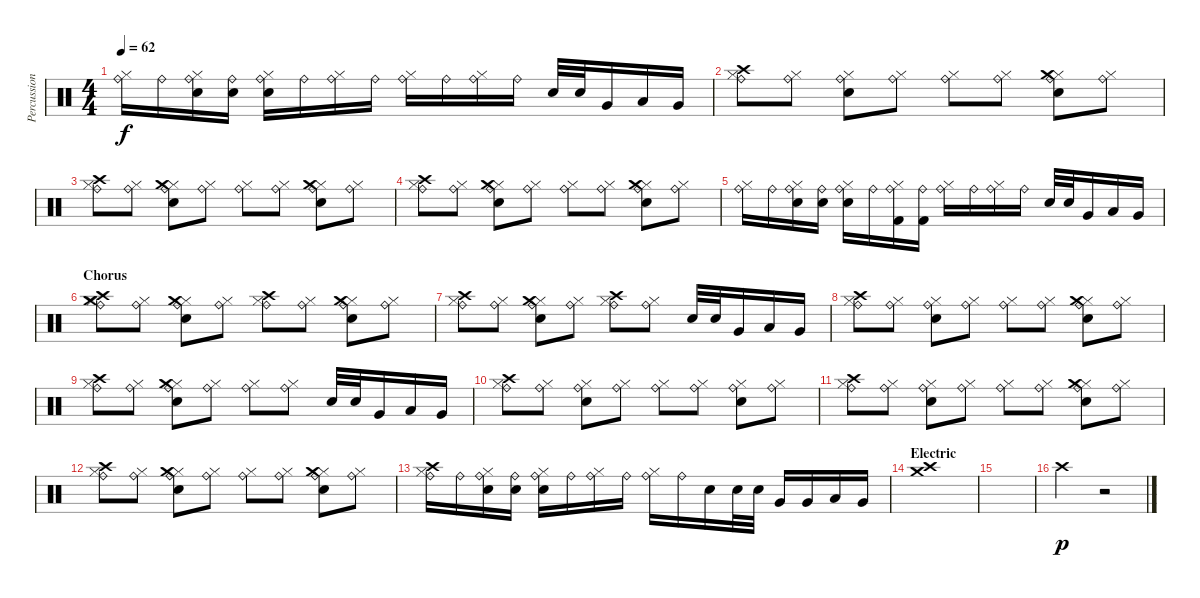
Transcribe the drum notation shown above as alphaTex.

\track ("Percussion" "Percussion") {instrument percussion}
\staff {score}
\articulation defaults
\ts (4 4)
\tempo 62
\clef neutral
\ks c
("Hi-Hat (closed)" "Ride (bell)").16{dy f} "Ride (bell)".16 ("Hi-Hat (closed)" "Electric Snare (hit)" "Ride (bell)").16 ("Electric Snare (hit)" "Ride (bell)").16 ("Hi-Hat (closed)" "Electric Snare (hit)" "Ride (bell)").16 "Ride (bell)".16 ("Hi-Hat (closed)" "Ride (bell)").16 "Ride (bell)".16 ("Hi-Hat (closed)" "Ride (bell)").16 "Ride (bell)".16 ("Hi-Hat (closed)" "Ride (bell)").16 "Ride (bell)".16 "Electric Snare (hit)".32 "Electric Snare (hit)".32 "Very Low Tom (hit)".16 "Low Tom (hit)".16 "Very Low Tom (hit)".16 |
("Hi-Hat (closed)" "Crash high (hit)" "Ride (bell)").8 ("Hi-Hat (closed)" "Ride (bell)").8 ("Hi-Hat (closed)" "Electric Snare (hit)" "Ride (bell)").8 ("Hi-Hat (closed)" "Ride (bell)").8 ("Hi-Hat (closed)" "Ride (bell)").8 ("Hi-Hat (closed)" "Ride (bell)").8 ("Hi-Hat (closed)" "Crash medium (hit)" "Electric Snare (hit)" "Ride (bell)").8 ("Hi-Hat (closed)" "Ride (bell)").8 |
("Hi-Hat (closed)" "Crash high (hit)" "Ride (bell)").8 ("Hi-Hat (closed)" "Ride (bell)").8 ("Hi-Hat (closed)" "Crash medium (hit)" "Electric Snare (hit)" "Ride (bell)").8 ("Hi-Hat (closed)" "Ride (bell)").8 ("Hi-Hat (closed)" "Ride (bell)").8 ("Hi-Hat (closed)" "Ride (bell)").8 ("Hi-Hat (closed)" "Crash medium (hit)" "Electric Snare (hit)" "Ride (bell)").8 ("Hi-Hat (closed)" "Ride (bell)").8 |
("Hi-Hat (closed)" "Crash high (hit)" "Ride (bell)").8 ("Hi-Hat (closed)" "Ride (bell)").8 ("Hi-Hat (closed)" "Crash medium (hit)" "Electric Snare (hit)" "Ride (bell)").8 ("Hi-Hat (closed)" "Ride (bell)").8 ("Hi-Hat (closed)" "Ride (bell)").8 ("Hi-Hat (closed)" "Ride (bell)").8 ("Hi-Hat (closed)" "Crash medium (hit)" "Electric Snare (hit)" "Ride (bell)").8 ("Hi-Hat (closed)" "Ride (bell)").8 |
("Hi-Hat (closed)" "Ride (bell)").16 "Ride (bell)".16 ("Hi-Hat (closed)" "Electric Snare (hit)" "Ride (bell)").16 ("Electric Snare (hit)" "Ride (bell)").16 ("Hi-Hat (closed)" "Electric Snare (hit)" "Ride (bell)").16 "Ride (bell)".16 ("Hi-Hat (closed)" "Kick (hit) 2" "Ride (bell)").16 ("Kick (hit) 2" "Ride (bell)").16 ("Hi-Hat (closed)" "Ride (bell)").16 "Ride (bell)".16 ("Hi-Hat (closed)" "Ride (bell)").16 "Ride (bell)".16 "Electric Snare (hit)".32 "Electric Snare (hit)".32 "Very Low Tom (hit)".16 "Low Tom (hit)".16 "Very Low Tom (hit)".16 |
\section ("" "Chorus")
("Hi-Hat (closed)" "Crash high (hit)" "Crash medium (hit)" "Ride (bell)").8 ("Hi-Hat (closed)" "Ride (bell)").8 ("Hi-Hat (closed)" "Crash medium (hit)" "Electric Snare (hit)" "Ride (bell)").8 ("Hi-Hat (closed)" "Ride (bell)").8 ("Hi-Hat (closed)" "Crash high (hit)" "Ride (bell)").8 ("Hi-Hat (closed)" "Ride (bell)").8 ("Hi-Hat (closed)" "Crash medium (hit)" "Electric Snare (hit)" "Ride (bell)").8 ("Hi-Hat (closed)" "Ride (bell)").8 |
("Hi-Hat (closed)" "Crash high (hit)" "Ride (bell)").8 ("Hi-Hat (closed)" "Ride (bell)").8 ("Hi-Hat (closed)" "Crash medium (hit)" "Electric Snare (hit)" "Ride (bell)").8 ("Hi-Hat (closed)" "Ride (bell)").8 ("Hi-Hat (closed)" "Crash high (hit)" "Ride (bell)").8 ("Hi-Hat (closed)" "Ride (bell)").8 "Electric Snare (hit)".32 "Electric Snare (hit)".32 "Very Low Tom (hit)".16 "Low Tom (hit)".16 "Very Low Tom (hit)".16 |
("Hi-Hat (closed)" "Crash high (hit)" "Ride (bell)").8 ("Hi-Hat (closed)" "Ride (bell)").8 ("Hi-Hat (closed)" "Electric Snare (hit)" "Ride (bell)").8 ("Hi-Hat (closed)" "Ride (bell)").8 ("Hi-Hat (closed)" "Ride (bell)").8 ("Hi-Hat (closed)" "Ride (bell)").8 ("Hi-Hat (closed)" "Crash medium (hit)" "Electric Snare (hit)" "Ride (bell)").8 ("Hi-Hat (closed)" "Ride (bell)").8 |
("Hi-Hat (closed)" "Crash high (hit)" "Ride (bell)").8 ("Hi-Hat (closed)" "Ride (bell)").8 ("Hi-Hat (closed)" "Crash medium (hit)" "Electric Snare (hit)" "Ride (bell)").8 ("Hi-Hat (closed)" "Ride (bell)").8 ("Hi-Hat (closed)" "Ride (bell)").8 ("Hi-Hat (closed)" "Ride (bell)").8 "Electric Snare (hit)".32 "Electric Snare (hit)".32 "Very Low Tom (hit)".16 "Low Tom (hit)".16 "Very Low Tom (hit)".16 |
("Hi-Hat (closed)" "Crash high (hit)" "Ride (bell)").8 ("Hi-Hat (closed)" "Ride (bell)").8 ("Hi-Hat (closed)" "Electric Snare (hit)" "Ride (bell)").8 ("Hi-Hat (closed)" "Ride (bell)").8 ("Hi-Hat (closed)" "Ride (bell)").8 ("Hi-Hat (closed)" "Ride (bell)").8 ("Hi-Hat (closed)" "Electric Snare (hit)" "Ride (bell)").8 ("Hi-Hat (closed)" "Ride (bell)").8 |
("Hi-Hat (closed)" "Crash high (hit)" "Ride (bell)").8 ("Hi-Hat (closed)" "Ride (bell)").8 ("Hi-Hat (closed)" "Electric Snare (hit)" "Ride (bell)").8 ("Hi-Hat (closed)" "Ride (bell)").8 ("Hi-Hat (closed)" "Ride (bell)").8 ("Hi-Hat (closed)" "Ride (bell)").8 ("Hi-Hat (closed)" "Crash medium (hit)" "Electric Snare (hit)" "Ride (bell)").8 ("Hi-Hat (closed)" "Ride (bell)").8 |
("Hi-Hat (closed)" "Crash high (hit)" "Ride (bell)").8 ("Hi-Hat (closed)" "Ride (bell)").8 ("Hi-Hat (closed)" "Crash medium (hit)" "Electric Snare (hit)" "Ride (bell)").8 ("Hi-Hat (closed)" "Ride (bell)").8 ("Hi-Hat (closed)" "Ride (bell)").8 ("Hi-Hat (closed)" "Ride (bell)").8 ("Hi-Hat (closed)" "Crash medium (hit)" "Electric Snare (hit)" "Ride (bell)").8 ("Hi-Hat (closed)" "Ride (bell)").8 |
("Hi-Hat (closed)" "Crash high (hit)" "Ride (bell)").16 "Ride (bell)".16 ("Hi-Hat (closed)" "Electric Snare (hit)" "Ride (bell)").16 ("Electric Snare (hit)" "Ride (bell)").16 ("Hi-Hat (closed)" "Electric Snare (hit)" "Ride (bell)").16 "Ride (bell)".16 ("Hi-Hat (closed)" "Ride (bell)").16 "Ride (bell)".16 ("Hi-Hat (closed)" "Ride (bell)").16 "Ride (bell)".16 "Electric Snare (hit)".16 "Electric Snare (hit)".32 "Electric Snare (hit)".32 "Very Low Tom (hit)".16 "Very Low Tom (hit)".16 "Low Tom (hit)".16 "Very Low Tom (hit)".16 |
\section ("" "Electric")
("Crash medium (hit)" "Crash high (hit)").1 |
|
"Crash high (hit)".2{dy p} r.2
